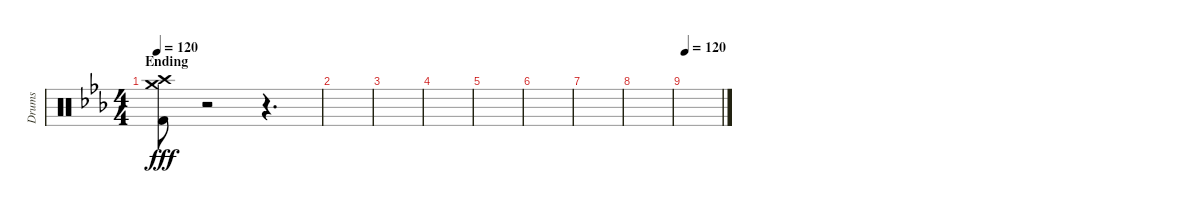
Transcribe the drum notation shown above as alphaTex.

\track ("Drums" "Drums") {instrument percussion}
\staff {score}
\articulation defaults
\ts (4 4)
\section ("" "Ending")
\tempo 120
\clef neutral
\ks eb
("Crash high (hit)" "Crash medium (hit)" "Kick (hit) 2").8{dy fff} r.2 r.4{d} |
|
|
|
|
|
|
|
\tempo 120
